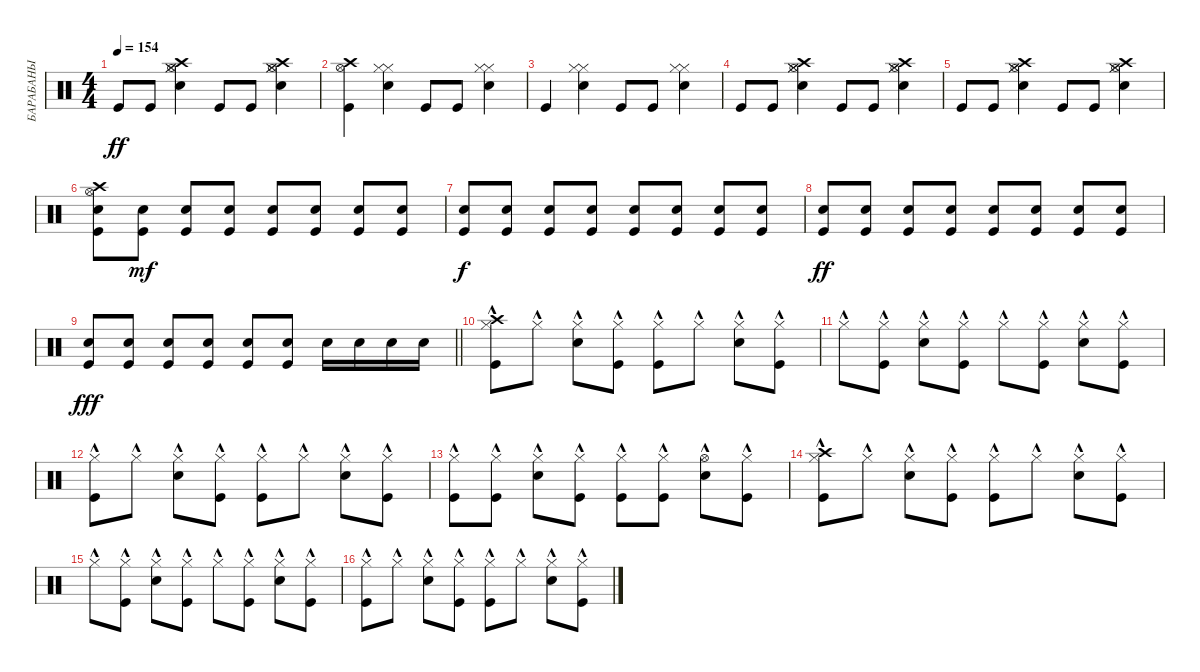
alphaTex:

\track ("БАРАБАНЫ" "БАРАБАНЫ") {instrument percussion}
\staff {score}
\articulation defaults
\ts (4 4)
\tempo 154
\clef neutral
\ks c "Kick (hit)".8{dy ff} "Kick (hit)".8
("Snare (hit) 2" "Hi-Hat (closed)" "Hi-Hat (closed)" "Hi-Hat (open)" "Crash high (hit)").4 "Kick (hit)".8 "Kick (hit)".8 ("Snare (hit) 2" "Hi-Hat (closed)" "Hi-Hat (closed)" "Hi-Hat (open)" "Crash high (hit)").4 |
("Kick (hit)" "Hi-Hat (open)" "Crash high (hit)").4 ("Snare (hit) 2" "Hi-Hat (closed)" "Hi-Hat (closed)").4 "Kick (hit)".8 "Kick (hit)".8 ("Snare (hit) 2" "Hi-Hat (closed)" "Hi-Hat (closed)").4 |
"Kick (hit)".4 ("Snare (hit) 2" "Hi-Hat (closed)" "Hi-Hat (closed)").4 "Kick (hit)".8 "Kick (hit)".8 ("Snare (hit) 2" "Hi-Hat (closed)" "Hi-Hat (closed)").4 |
"Kick (hit)".8 "Kick (hit)".8 ("Snare (hit) 2" "Hi-Hat (closed)" "Hi-Hat (closed)" "Hi-Hat (open)" "Crash high (hit)").4 "Kick (hit)".8 "Kick (hit)".8 ("Snare (hit) 2" "Hi-Hat (closed)" "Hi-Hat (closed)" "Hi-Hat (open)" "Crash high (hit)").4 |
"Kick (hit)".8 "Kick (hit)".8 ("Snare (hit) 2" "Hi-Hat (closed)" "Hi-Hat (closed)" "Hi-Hat (open)" "Crash high (hit)").4 "Kick (hit)".8 "Kick (hit)".8 ("Snare (hit) 2" "Hi-Hat (closed)" "Hi-Hat (closed)" "Hi-Hat (open)" "Crash high (hit)").4 |
("Snare (hit) 2" "Kick (hit)" "Crash high (hit)" "Hi-Hat (open)").8 ("Snare (hit) 2" "Kick (hit)").8{dy mf} ("Snare (hit) 2" "Kick (hit)").8 ("Snare (hit) 2" "Kick (hit)").8 ("Snare (hit) 2" "Kick (hit)").8 ("Snare (hit) 2" "Kick (hit)").8 ("Snare (hit) 2" "Kick (hit)").8 ("Snare (hit) 2" "Kick (hit)").8 |
("Snare (hit) 2" "Kick (hit)").8{dy f} ("Snare (hit) 2" "Kick (hit)").8 ("Snare (hit) 2" "Kick (hit)").8 ("Snare (hit) 2" "Kick (hit)").8 ("Snare (hit) 2" "Kick (hit)").8 ("Snare (hit) 2" "Kick (hit)").8 ("Snare (hit) 2" "Kick (hit)").8 ("Snare (hit) 2" "Kick (hit)").8 |
("Snare (hit) 2" "Kick (hit)").8{dy ff} ("Snare (hit) 2" "Kick (hit)").8 ("Snare (hit) 2" "Kick (hit)").8 ("Snare (hit) 2" "Kick (hit)").8 ("Snare (hit) 2" "Kick (hit)").8 ("Snare (hit) 2" "Kick (hit)").8 ("Snare (hit) 2" "Kick (hit)").8 ("Snare (hit) 2" "Kick (hit)").8 |
\barLineRight lightlight
("Snare (hit) 2" "Kick (hit)").8{dy fff} ("Snare (hit) 2" "Kick (hit)").8 ("Snare (hit) 2" "Kick (hit)").8 ("Snare (hit) 2" "Kick (hit)").8 ("Snare (hit) 2" "Kick (hit)").8 ("Snare (hit) 2" "Kick (hit)").8 "Snare (hit) 2".16 "Snare (hit) 2".16 "Snare (hit) 2".16 "Snare (hit) 2".16 |
("Hi-Hat (closed)"{hac} "Crash high (hit)"{hac} "Kick (hit)"{hac}).8 "Hi-Hat (closed)"{hac}.8 ("Hi-Hat (closed)"{hac} "Snare (hit) 2"{hac}).8 ("Hi-Hat (closed)"{hac} "Kick (hit)"{hac}).8 ("Hi-Hat (closed)"{hac} "Kick (hit)"{hac}).8 "Hi-Hat (closed)"{hac}.8 ("Hi-Hat (closed)"{hac} "Snare (hit) 2"{hac}).8 ("Hi-Hat (closed)"{hac} "Kick (hit)"{hac}).8 |
"Hi-Hat (closed)"{hac}.8 ("Hi-Hat (closed)"{hac} "Kick (hit)"{hac}).8 ("Hi-Hat (closed)"{hac} "Snare (hit) 2"{hac}).8 ("Hi-Hat (closed)"{hac} "Kick (hit)"{hac}).8 "Hi-Hat (closed)"{hac}.8 ("Hi-Hat (closed)"{hac} "Kick (hit)"{hac}).8 ("Hi-Hat (closed)"{hac} "Snare (hit) 2"{hac}).8 ("Hi-Hat (closed)"{hac} "Kick (hit)"{hac}).8 |
("Hi-Hat (closed)"{hac} "Kick (hit)"{hac}).8 "Hi-Hat (closed)"{hac}.8 ("Hi-Hat (closed)"{hac} "Snare (hit) 2"{hac}).8 ("Hi-Hat (closed)"{hac} "Kick (hit)"{hac}).8 ("Hi-Hat (closed)"{hac} "Kick (hit)"{hac}).8 "Hi-Hat (closed)"{hac}.8 ("Hi-Hat (closed)"{hac} "Snare (hit) 2"{hac}).8 ("Hi-Hat (closed)"{hac} "Kick (hit)"{hac}).8 |
("Hi-Hat (closed)"{hac} "Kick (hit)"{hac}).8 ("Hi-Hat (closed)"{hac} "Kick (hit)"{hac}).8 ("Hi-Hat (closed)"{hac} "Snare (hit) 2"{hac}).8 ("Hi-Hat (closed)"{hac} "Kick (hit)"{hac}).8 ("Hi-Hat (closed)"{hac} "Kick (hit)"{hac}).8 ("Hi-Hat (closed)"{hac} "Kick (hit)"{hac}).8 ("Hi-Hat (open)"{hac} "Snare (hit) 2"{hac}).8 ("Hi-Hat (closed)"{hac} "Kick (hit)"{hac}).8 |
("Hi-Hat (closed)"{hac} "Crash high (hit)"{hac} "Kick (hit)"{hac}).8 "Hi-Hat (closed)"{hac}.8 ("Hi-Hat (closed)"{hac} "Snare (hit) 2"{hac}).8 ("Hi-Hat (closed)"{hac} "Kick (hit)"{hac}).8 ("Hi-Hat (closed)"{hac} "Kick (hit)"{hac}).8 "Hi-Hat (closed)"{hac}.8 ("Hi-Hat (closed)"{hac} "Snare (hit) 2"{hac}).8 ("Hi-Hat (closed)"{hac} "Kick (hit)"{hac}).8 |
"Hi-Hat (closed)"{hac}.8 ("Hi-Hat (closed)"{hac} "Kick (hit)"{hac}).8 ("Hi-Hat (closed)"{hac} "Snare (hit) 2"{hac}).8 ("Hi-Hat (closed)"{hac} "Kick (hit)"{hac}).8 "Hi-Hat (closed)"{hac}.8 ("Hi-Hat (closed)"{hac} "Kick (hit)"{hac}).8 ("Hi-Hat (closed)"{hac} "Snare (hit) 2"{hac}).8 ("Hi-Hat (closed)"{hac} "Kick (hit)"{hac}).8 |
("Hi-Hat (closed)"{hac} "Kick (hit)"{hac}).8 "Hi-Hat (closed)"{hac}.8 ("Hi-Hat (closed)"{hac} "Snare (hit) 2"{hac}).8 ("Hi-Hat (closed)"{hac} "Kick (hit)"{hac}).8 ("Hi-Hat (closed)"{hac} "Kick (hit)"{hac}).8 "Hi-Hat (closed)"{hac}.8 ("Hi-Hat (closed)"{hac} "Snare (hit) 2"{hac}).8 ("Hi-Hat (closed)"{hac} "Kick (hit)"{hac}).8
